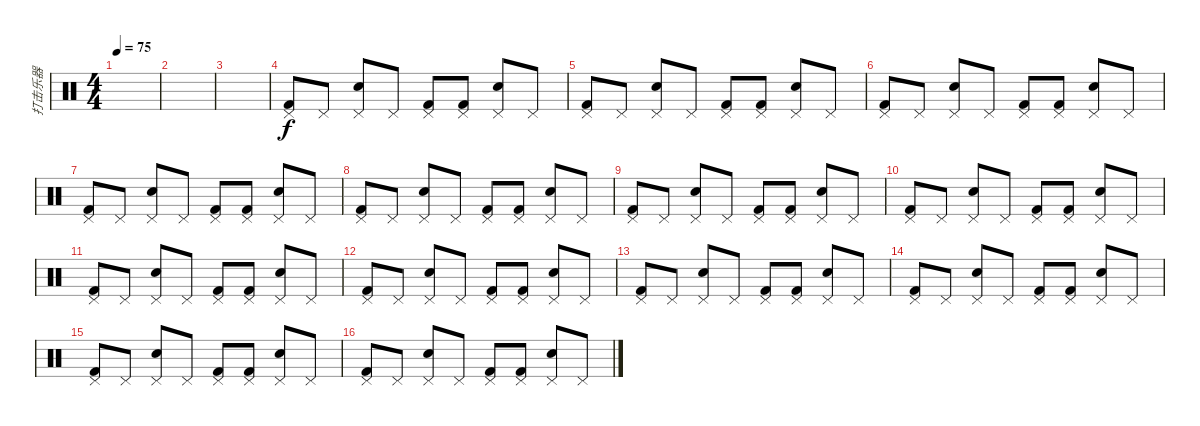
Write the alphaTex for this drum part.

\track ("打击乐器" "打击乐器") {instrument percussion}
\staff {score}
\articulation defaults
\ts (4 4)
\tempo 75
\clef neutral
\ks c
|
|
|
("Kick (hit) 2" "Pedal Hi-Hat (hit)").8 "Pedal Hi-Hat (hit)".8 ("Electric Snare (hit)" "Pedal Hi-Hat (hit)").8 "Pedal Hi-Hat (hit)".8 ("Kick (hit) 2" "Pedal Hi-Hat (hit)").8 ("Kick (hit) 2" "Pedal Hi-Hat (hit)").8 ("Electric Snare (hit)" "Pedal Hi-Hat (hit)").8 "Pedal Hi-Hat (hit)".8 |
("Kick (hit) 2" "Pedal Hi-Hat (hit)").8 "Pedal Hi-Hat (hit)".8 ("Electric Snare (hit)" "Pedal Hi-Hat (hit)").8 "Pedal Hi-Hat (hit)".8 ("Kick (hit) 2" "Pedal Hi-Hat (hit)").8 ("Kick (hit) 2" "Pedal Hi-Hat (hit)").8 ("Electric Snare (hit)" "Pedal Hi-Hat (hit)").8 "Pedal Hi-Hat (hit)".8 |
("Kick (hit) 2" "Pedal Hi-Hat (hit)").8 "Pedal Hi-Hat (hit)".8 ("Electric Snare (hit)" "Pedal Hi-Hat (hit)").8 "Pedal Hi-Hat (hit)".8 ("Kick (hit) 2" "Pedal Hi-Hat (hit)").8 ("Kick (hit) 2" "Pedal Hi-Hat (hit)").8 ("Electric Snare (hit)" "Pedal Hi-Hat (hit)").8 "Pedal Hi-Hat (hit)".8 |
("Kick (hit) 2" "Pedal Hi-Hat (hit)").8 "Pedal Hi-Hat (hit)".8 ("Electric Snare (hit)" "Pedal Hi-Hat (hit)").8 "Pedal Hi-Hat (hit)".8 ("Kick (hit) 2" "Pedal Hi-Hat (hit)").8 ("Kick (hit) 2" "Pedal Hi-Hat (hit)").8 ("Electric Snare (hit)" "Pedal Hi-Hat (hit)").8 "Pedal Hi-Hat (hit)".8 |
("Kick (hit) 2" "Pedal Hi-Hat (hit)").8 "Pedal Hi-Hat (hit)".8 ("Electric Snare (hit)" "Pedal Hi-Hat (hit)").8 "Pedal Hi-Hat (hit)".8 ("Kick (hit) 2" "Pedal Hi-Hat (hit)").8 ("Kick (hit) 2" "Pedal Hi-Hat (hit)").8 ("Electric Snare (hit)" "Pedal Hi-Hat (hit)").8 "Pedal Hi-Hat (hit)".8 |
("Kick (hit) 2" "Pedal Hi-Hat (hit)").8 "Pedal Hi-Hat (hit)".8 ("Electric Snare (hit)" "Pedal Hi-Hat (hit)").8 "Pedal Hi-Hat (hit)".8 ("Kick (hit) 2" "Pedal Hi-Hat (hit)").8 ("Kick (hit) 2" "Pedal Hi-Hat (hit)").8 ("Electric Snare (hit)" "Pedal Hi-Hat (hit)").8 "Pedal Hi-Hat (hit)".8 |
("Kick (hit) 2" "Pedal Hi-Hat (hit)").8 "Pedal Hi-Hat (hit)".8 ("Electric Snare (hit)" "Pedal Hi-Hat (hit)").8 "Pedal Hi-Hat (hit)".8 ("Kick (hit) 2" "Pedal Hi-Hat (hit)").8 ("Kick (hit) 2" "Pedal Hi-Hat (hit)").8 ("Electric Snare (hit)" "Pedal Hi-Hat (hit)").8 "Pedal Hi-Hat (hit)".8 |
("Kick (hit) 2" "Pedal Hi-Hat (hit)").8 "Pedal Hi-Hat (hit)".8 ("Electric Snare (hit)" "Pedal Hi-Hat (hit)").8 "Pedal Hi-Hat (hit)".8 ("Kick (hit) 2" "Pedal Hi-Hat (hit)").8 ("Kick (hit) 2" "Pedal Hi-Hat (hit)").8 ("Electric Snare (hit)" "Pedal Hi-Hat (hit)").8 "Pedal Hi-Hat (hit)".8 |
("Kick (hit) 2" "Pedal Hi-Hat (hit)").8 "Pedal Hi-Hat (hit)".8 ("Electric Snare (hit)" "Pedal Hi-Hat (hit)").8 "Pedal Hi-Hat (hit)".8 ("Kick (hit) 2" "Pedal Hi-Hat (hit)").8 ("Kick (hit) 2" "Pedal Hi-Hat (hit)").8 ("Electric Snare (hit)" "Pedal Hi-Hat (hit)").8 "Pedal Hi-Hat (hit)".8 |
("Kick (hit) 2" "Pedal Hi-Hat (hit)").8 "Pedal Hi-Hat (hit)".8 ("Electric Snare (hit)" "Pedal Hi-Hat (hit)").8 "Pedal Hi-Hat (hit)".8 ("Kick (hit) 2" "Pedal Hi-Hat (hit)").8 ("Kick (hit) 2" "Pedal Hi-Hat (hit)").8 ("Electric Snare (hit)" "Pedal Hi-Hat (hit)").8 "Pedal Hi-Hat (hit)".8 |
("Kick (hit) 2" "Pedal Hi-Hat (hit)").8 "Pedal Hi-Hat (hit)".8 ("Electric Snare (hit)" "Pedal Hi-Hat (hit)").8 "Pedal Hi-Hat (hit)".8 ("Kick (hit) 2" "Pedal Hi-Hat (hit)").8 ("Kick (hit) 2" "Pedal Hi-Hat (hit)").8 ("Electric Snare (hit)" "Pedal Hi-Hat (hit)").8 "Pedal Hi-Hat (hit)".8 |
("Kick (hit) 2" "Pedal Hi-Hat (hit)").8 "Pedal Hi-Hat (hit)".8 ("Electric Snare (hit)" "Pedal Hi-Hat (hit)").8 "Pedal Hi-Hat (hit)".8 ("Kick (hit) 2" "Pedal Hi-Hat (hit)").8 ("Kick (hit) 2" "Pedal Hi-Hat (hit)").8 ("Electric Snare (hit)" "Pedal Hi-Hat (hit)").8 "Pedal Hi-Hat (hit)".8 |
("Kick (hit) 2" "Pedal Hi-Hat (hit)").8 "Pedal Hi-Hat (hit)".8 ("Electric Snare (hit)" "Pedal Hi-Hat (hit)").8 "Pedal Hi-Hat (hit)".8 ("Kick (hit) 2" "Pedal Hi-Hat (hit)").8 ("Kick (hit) 2" "Pedal Hi-Hat (hit)").8 ("Electric Snare (hit)" "Pedal Hi-Hat (hit)").8 "Pedal Hi-Hat (hit)".8
